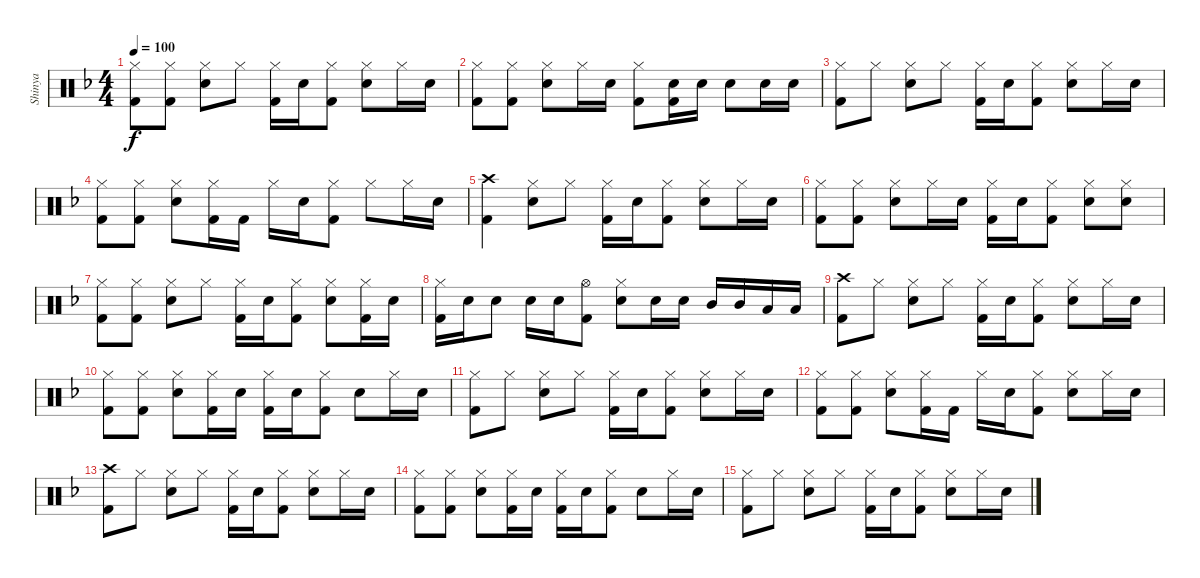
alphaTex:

\track ("Shinya" "Shinya") {instrument percussion}
\staff {score}
\articulation defaults
\ts (4 4)
\tempo 100
\clef neutral
\ks f
("Hi-Hat (closed)" "Kick (hit) 2").8{dy f} ("Hi-Hat (closed)" "Kick (hit) 2").8 ("Hi-Hat (closed)" "Electric Snare (hit)").8 "Hi-Hat (closed)".8 ("Hi-Hat (closed)" "Kick (hit) 2").16 "Electric Snare (hit)".16 ("Hi-Hat (closed)" "Kick (hit) 2").8 ("Hi-Hat (closed)" "Electric Snare (hit)").8 "Hi-Hat (closed)".16 "Electric Snare (hit)".16 |
("Hi-Hat (closed)" "Kick (hit) 2").8 ("Hi-Hat (closed)" "Kick (hit) 2").8 ("Hi-Hat (closed)" "Electric Snare (hit)").8 "Hi-Hat (closed)".16 "Electric Snare (hit)".16 ("Hi-Hat (closed)" "Kick (hit) 2").8 ("Electric Snare (hit)" "Kick (hit) 2").16 "Electric Snare (hit)".16 "Electric Snare (hit)".8 "Electric Snare (hit)".16 "Electric Snare (hit)".16 |
("Hi-Hat (closed)" "Kick (hit) 2").8 "Hi-Hat (closed)".8 ("Hi-Hat (closed)" "Electric Snare (hit)").8 "Hi-Hat (closed)".8 ("Hi-Hat (closed)" "Kick (hit) 2").16 "Electric Snare (hit)".16 ("Hi-Hat (closed)" "Kick (hit) 2").8 ("Hi-Hat (closed)" "Electric Snare (hit)").8 "Hi-Hat (closed)".16 "Electric Snare (hit)".16 |
("Hi-Hat (closed)" "Kick (hit) 2").8 ("Hi-Hat (closed)" "Kick (hit) 2").8 ("Hi-Hat (closed)" "Electric Snare (hit)").8 ("Hi-Hat (closed)" "Kick (hit) 2").16 "Kick (hit) 2".16 "Hi-Hat (closed)".16 "Electric Snare (hit)".16 ("Hi-Hat (closed)" "Kick (hit) 2").8 "Hi-Hat (closed)".8 "Hi-Hat (closed)".16 "Electric Snare (hit)".16 |
("Crash high (hit)" "Kick (hit) 2").4 ("Hi-Hat (closed)" "Electric Snare (hit)").8 "Hi-Hat (closed)".8 ("Hi-Hat (closed)" "Kick (hit) 2").16 "Electric Snare (hit)".16 ("Hi-Hat (closed)" "Kick (hit) 2").8 ("Hi-Hat (closed)" "Electric Snare (hit)").8 "Hi-Hat (closed)".16 "Electric Snare (hit)".16 |
("Hi-Hat (closed)" "Kick (hit) 2").8 ("Hi-Hat (closed)" "Kick (hit) 2").8 ("Hi-Hat (closed)" "Electric Snare (hit)").8 "Hi-Hat (closed)".16 "Electric Snare (hit)".16 ("Hi-Hat (closed)" "Kick (hit) 2").16 "Electric Snare (hit)".16 ("Hi-Hat (closed)" "Kick (hit) 2").8 ("Hi-Hat (closed)" "Electric Snare (hit)").8 ("Hi-Hat (closed)" "Electric Snare (hit)").8 |
("Hi-Hat (closed)" "Kick (hit) 2").8 ("Hi-Hat (closed)" "Kick (hit) 2").8 ("Hi-Hat (closed)" "Electric Snare (hit)").8 "Hi-Hat (closed)".8 ("Hi-Hat (closed)" "Kick (hit) 2").16 "Electric Snare (hit)".16 ("Hi-Hat (closed)" "Kick (hit) 2").8 ("Hi-Hat (closed)" "Electric Snare (hit)").8 ("Hi-Hat (closed)" "Kick (hit) 2").16 "Electric Snare (hit)".16 |
("Hi-Hat (closed)" "Kick (hit) 2").16 "Electric Snare (hit)".16 "Electric Snare (hit)".8 "Electric Snare (hit)".16 "Electric Snare (hit)".16 ("Hi-Hat (open)" "Kick (hit) 2").8 ("Hi-Hat (closed)" "Electric Snare (hit)").8 "Electric Snare (hit)".16 "Electric Snare (hit)".16 "Mid Tom (hit)".16 "Mid Tom (hit)".16 "Low Tom (hit)".16 "Low Tom (hit)".16 |
("Crash high (hit)" "Kick (hit) 2").8 "Hi-Hat (closed)".8 ("Hi-Hat (closed)" "Electric Snare (hit)").8 "Hi-Hat (closed)".8 ("Hi-Hat (closed)" "Kick (hit) 2").16 "Electric Snare (hit)".16 ("Hi-Hat (closed)" "Kick (hit) 2").8 ("Hi-Hat (closed)" "Electric Snare (hit)").8 "Hi-Hat (closed)".16 "Electric Snare (hit)".16 |
("Hi-Hat (closed)" "Kick (hit) 2").8 ("Hi-Hat (closed)" "Kick (hit) 2").8 ("Hi-Hat (closed)" "Electric Snare (hit)").8 ("Hi-Hat (closed)" "Kick (hit) 2").16 "Electric Snare (hit)".16 ("Hi-Hat (closed)" "Kick (hit) 2").16 "Electric Snare (hit)".16 ("Hi-Hat (closed)" "Kick (hit) 2").8 "Electric Snare (hit)".8 "Hi-Hat (closed)".16 "Electric Snare (hit)".16 |
("Hi-Hat (closed)" "Kick (hit) 2").8 "Hi-Hat (closed)".8 ("Hi-Hat (closed)" "Electric Snare (hit)").8 "Hi-Hat (closed)".8 ("Hi-Hat (closed)" "Kick (hit) 2").16 "Electric Snare (hit)".16 ("Hi-Hat (closed)" "Kick (hit) 2").8 ("Hi-Hat (closed)" "Electric Snare (hit)").8 "Hi-Hat (closed)".16 "Electric Snare (hit)".16 |
("Hi-Hat (closed)" "Kick (hit) 2").8 ("Hi-Hat (closed)" "Kick (hit) 2").8 ("Hi-Hat (closed)" "Electric Snare (hit)").8 ("Hi-Hat (closed)" "Kick (hit) 2").16 "Kick (hit) 2".16 "Hi-Hat (closed)".16 "Electric Snare (hit)".16 ("Hi-Hat (closed)" "Kick (hit) 2").8 ("Hi-Hat (closed)" "Electric Snare (hit)").8 "Hi-Hat (closed)".16 "Electric Snare (hit)".16 |
("Crash high (hit)" "Kick (hit) 2").8 "Hi-Hat (closed)".8 ("Hi-Hat (closed)" "Electric Snare (hit)").8 "Hi-Hat (closed)".8 ("Hi-Hat (closed)" "Kick (hit) 2").16 "Electric Snare (hit)".16 ("Hi-Hat (closed)" "Kick (hit) 2").8 ("Hi-Hat (closed)" "Electric Snare (hit)").8 "Hi-Hat (closed)".16 "Electric Snare (hit)".16 |
("Hi-Hat (closed)" "Kick (hit) 2").8 ("Hi-Hat (closed)" "Kick (hit) 2").8 ("Hi-Hat (closed)" "Electric Snare (hit)").8 ("Hi-Hat (closed)" "Kick (hit) 2").16 "Electric Snare (hit)".16 ("Hi-Hat (closed)" "Kick (hit) 2").16 "Electric Snare (hit)".16 ("Hi-Hat (closed)" "Kick (hit) 2").8 "Electric Snare (hit)".8 "Hi-Hat (closed)".16 "Electric Snare (hit)".16 |
("Hi-Hat (closed)" "Kick (hit) 2").8 "Hi-Hat (closed)".8 ("Hi-Hat (closed)" "Electric Snare (hit)").8 "Hi-Hat (closed)".8 ("Hi-Hat (closed)" "Kick (hit) 2").16 "Electric Snare (hit)".16 ("Hi-Hat (closed)" "Kick (hit) 2").8 ("Hi-Hat (closed)" "Electric Snare (hit)").8 "Hi-Hat (closed)".16 "Electric Snare (hit)".16
